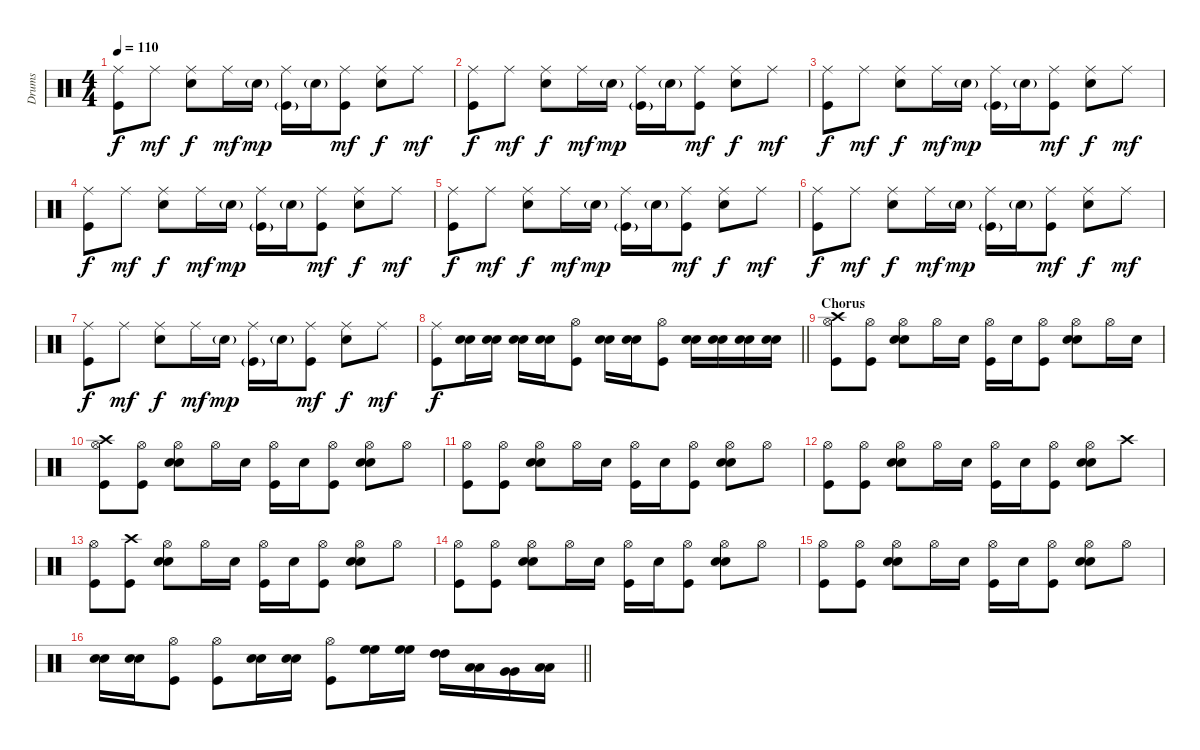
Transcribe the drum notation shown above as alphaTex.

\track ("Drums" "Drums") {instrument percussion}
\staff {score}
\articulation defaults
\ts (4 4)
\tempo 110
\clef neutral
\ks c
("Ride (middle)" "Kick (hit)").8{dy f} "Ride (middle)".8{dy mf} ("Ride (middle)" "Electric Snare (hit)").8{dy f} "Ride (middle)".16{dy mf} "Electric Snare (hit)"{g}.16{dy mp} ("Ride (middle)" "Kick (hit)"{g}).16 "Electric Snare (hit)"{g}.16 ("Ride (middle)" "Kick (hit)").8{dy mf} ("Ride (middle)" "Electric Snare (hit)").8{dy f} "Ride (middle)".8{dy mf} |
("Ride (middle)" "Kick (hit)").8{dy f} "Ride (middle)".8{dy mf} ("Ride (middle)" "Electric Snare (hit)").8{dy f} "Ride (middle)".16{dy mf} "Electric Snare (hit)"{g}.16{dy mp} ("Ride (middle)" "Kick (hit)"{g}).16 "Electric Snare (hit)"{g}.16 ("Ride (middle)" "Kick (hit)").8{dy mf} ("Ride (middle)" "Electric Snare (hit)").8{dy f} "Ride (middle)".8{dy mf} |
("Ride (middle)" "Kick (hit)").8{dy f} "Ride (middle)".8{dy mf} ("Ride (middle)" "Electric Snare (hit)").8{dy f} "Ride (middle)".16{dy mf} "Electric Snare (hit)"{g}.16{dy mp} ("Ride (middle)" "Kick (hit)"{g}).16 "Electric Snare (hit)"{g}.16 ("Ride (middle)" "Kick (hit)").8{dy mf} ("Ride (middle)" "Electric Snare (hit)").8{dy f} "Ride (middle)".8{dy mf} |
("Ride (middle)" "Kick (hit)").8{dy f} "Ride (middle)".8{dy mf} ("Ride (middle)" "Electric Snare (hit)").8{dy f} "Ride (middle)".16{dy mf} "Electric Snare (hit)"{g}.16{dy mp} ("Ride (middle)" "Kick (hit)"{g}).16 "Electric Snare (hit)"{g}.16 ("Ride (middle)" "Kick (hit)").8{dy mf} ("Ride (middle)" "Electric Snare (hit)").8{dy f} "Ride (middle)".8{dy mf} |
("Ride (middle)" "Kick (hit)").8{dy f} "Ride (middle)".8{dy mf} ("Ride (middle)" "Electric Snare (hit)").8{dy f} "Ride (middle)".16{dy mf} "Electric Snare (hit)"{g}.16{dy mp} ("Ride (middle)" "Kick (hit)"{g}).16 "Electric Snare (hit)"{g}.16 ("Ride (middle)" "Kick (hit)").8{dy mf} ("Ride (middle)" "Electric Snare (hit)").8{dy f} "Ride (middle)".8{dy mf} |
("Ride (middle)" "Kick (hit)").8{dy f} "Ride (middle)".8{dy mf} ("Ride (middle)" "Electric Snare (hit)").8{dy f} "Ride (middle)".16{dy mf} "Electric Snare (hit)"{g}.16{dy mp} ("Ride (middle)" "Kick (hit)"{g}).16 "Electric Snare (hit)"{g}.16 ("Ride (middle)" "Kick (hit)").8{dy mf} ("Ride (middle)" "Electric Snare (hit)").8{dy f} "Ride (middle)".8{dy mf} |
("Ride (middle)" "Kick (hit)").8{dy f} "Ride (middle)".8{dy mf} ("Ride (middle)" "Electric Snare (hit)").8{dy f} "Ride (middle)".16{dy mf} "Electric Snare (hit)"{g}.16{dy mp} ("Ride (middle)" "Kick (hit)"{g}).16 "Electric Snare (hit)"{g}.16 ("Ride (middle)" "Kick (hit)").8{dy mf} ("Ride (middle)" "Electric Snare (hit)").8{dy f} "Ride (middle)".8{dy mf} |
\barLineRight lightlight
("Ride (middle)" "Kick (hit)").8{dy f} ("Electric Snare (hit)" "Snare (hit) 2").16 ("Electric Snare (hit)" "Snare (hit) 2").16 ("Electric Snare (hit)" "Snare (hit) 2").16 ("Electric Snare (hit)" "Snare (hit) 2").16 ("Hi-Hat (open)" "Kick (hit)").8 ("Electric Snare (hit)" "Snare (hit) 2").16 ("Electric Snare (hit)" "Snare (hit) 2").16 ("Hi-Hat (open)" "Kick (hit)").8 ("Electric Snare (hit)" "Snare (hit) 2").16 ("Electric Snare (hit)" "Snare (hit) 2").16 ("Electric Snare (hit)" "Snare (hit) 2").16 ("Electric Snare (hit)" "Snare (hit) 2").16 |
\section ("" "Chorus")
("Crash high (hit)" "Hi-Hat (open)" "Kick (hit)").8 ("Hi-Hat (open)" "Kick (hit)").8 ("Hi-Hat (open)" "Electric Snare (hit)" "Snare (hit) 2").8 "Hi-Hat (open)".16 "Electric Snare (hit)".16 ("Hi-Hat (open)" "Kick (hit)").16 "Electric Snare (hit)".16 ("Hi-Hat (open)" "Kick (hit)").8 ("Hi-Hat (open)" "Electric Snare (hit)" "Snare (hit) 2").8 "Hi-Hat (open)".16 "Electric Snare (hit)".16 |
("Crash high (hit)" "Hi-Hat (open)" "Kick (hit)").8 ("Hi-Hat (open)" "Kick (hit)").8 ("Hi-Hat (open)" "Electric Snare (hit)" "Snare (hit) 2").8 "Hi-Hat (open)".16 "Electric Snare (hit)".16 ("Hi-Hat (open)" "Kick (hit)").16 "Electric Snare (hit)".16 ("Hi-Hat (open)" "Kick (hit)").8 ("Hi-Hat (open)" "Electric Snare (hit)" "Snare (hit) 2").8 "Hi-Hat (open)".8 |
("Hi-Hat (open)" "Kick (hit)").8 ("Hi-Hat (open)" "Kick (hit)").8 ("Hi-Hat (open)" "Electric Snare (hit)" "Snare (hit) 2").8 "Hi-Hat (open)".16 "Electric Snare (hit)".16 ("Hi-Hat (open)" "Kick (hit)").16 "Electric Snare (hit)".16 ("Hi-Hat (open)" "Kick (hit)").8 ("Hi-Hat (open)" "Electric Snare (hit)" "Snare (hit) 2").8 "Hi-Hat (open)".8 |
("Hi-Hat (open)" "Kick (hit)").8 ("Hi-Hat (open)" "Kick (hit)").8 ("Hi-Hat (open)" "Electric Snare (hit)" "Snare (hit) 2").8 "Hi-Hat (open)".16 "Electric Snare (hit)".16 ("Hi-Hat (open)" "Kick (hit)").16 "Electric Snare (hit)".16 ("Hi-Hat (open)" "Kick (hit)").8 ("Hi-Hat (open)" "Electric Snare (hit)" "Snare (hit) 2").8 "Crash high (hit)".8 |
("Hi-Hat (open)" "Kick (hit)").8 ("Crash high (hit)" "Kick (hit)").8 ("Hi-Hat (open)" "Electric Snare (hit)" "Snare (hit) 2").8 "Hi-Hat (open)".16 "Electric Snare (hit)".16 ("Hi-Hat (open)" "Kick (hit)").16 "Electric Snare (hit)".16 ("Hi-Hat (open)" "Kick (hit)").8 ("Hi-Hat (open)" "Electric Snare (hit)" "Snare (hit) 2").8 "Hi-Hat (open)".8 |
("Hi-Hat (open)" "Kick (hit)").8 ("Hi-Hat (open)" "Kick (hit)").8 ("Hi-Hat (open)" "Electric Snare (hit)" "Snare (hit) 2").8 "Hi-Hat (open)".16 "Electric Snare (hit)".16 ("Hi-Hat (open)" "Kick (hit)").16 "Electric Snare (hit)".16 ("Hi-Hat (open)" "Kick (hit)").8 ("Hi-Hat (open)" "Electric Snare (hit)" "Snare (hit) 2").8 "Hi-Hat (open)".8 |
("Hi-Hat (open)" "Kick (hit)").8 ("Hi-Hat (open)" "Kick (hit)").8 ("Hi-Hat (open)" "Electric Snare (hit)" "Snare (hit) 2").8 "Hi-Hat (open)".16 "Electric Snare (hit)".16 ("Hi-Hat (open)" "Kick (hit)").16 "Electric Snare (hit)".16 ("Hi-Hat (open)" "Kick (hit)").8 ("Hi-Hat (open)" "Electric Snare (hit)" "Snare (hit) 2").8 "Hi-Hat (open)".8 |
\barLineRight lightlight
("Electric Snare (hit)" "Snare (hit) 2").16 ("Electric Snare (hit)" "Snare (hit) 2").16 ("Hi-Hat (open)" "Kick (hit)").8 ("Hi-Hat (open)" "Kick (hit)").8 ("Electric Snare (hit)" "Snare (hit) 2").16 ("Electric Snare (hit)" "Snare (hit) 2").16 ("Hi-Hat (open)" "Kick (hit)").8 ("High Floor Tom (hit)" "High Floor Tom (hit)").16 ("High Floor Tom (hit)" "High Floor Tom (hit)").16 ("High Tom (hit)" "High Tom (hit)").16 ("Low Tom (hit)" "Low Tom (hit)").16 ("Very Low Tom (hit)" "Very Low Tom (hit)").16 ("Low Floor Tom (hit)" "Low Floor Tom (hit)").16
